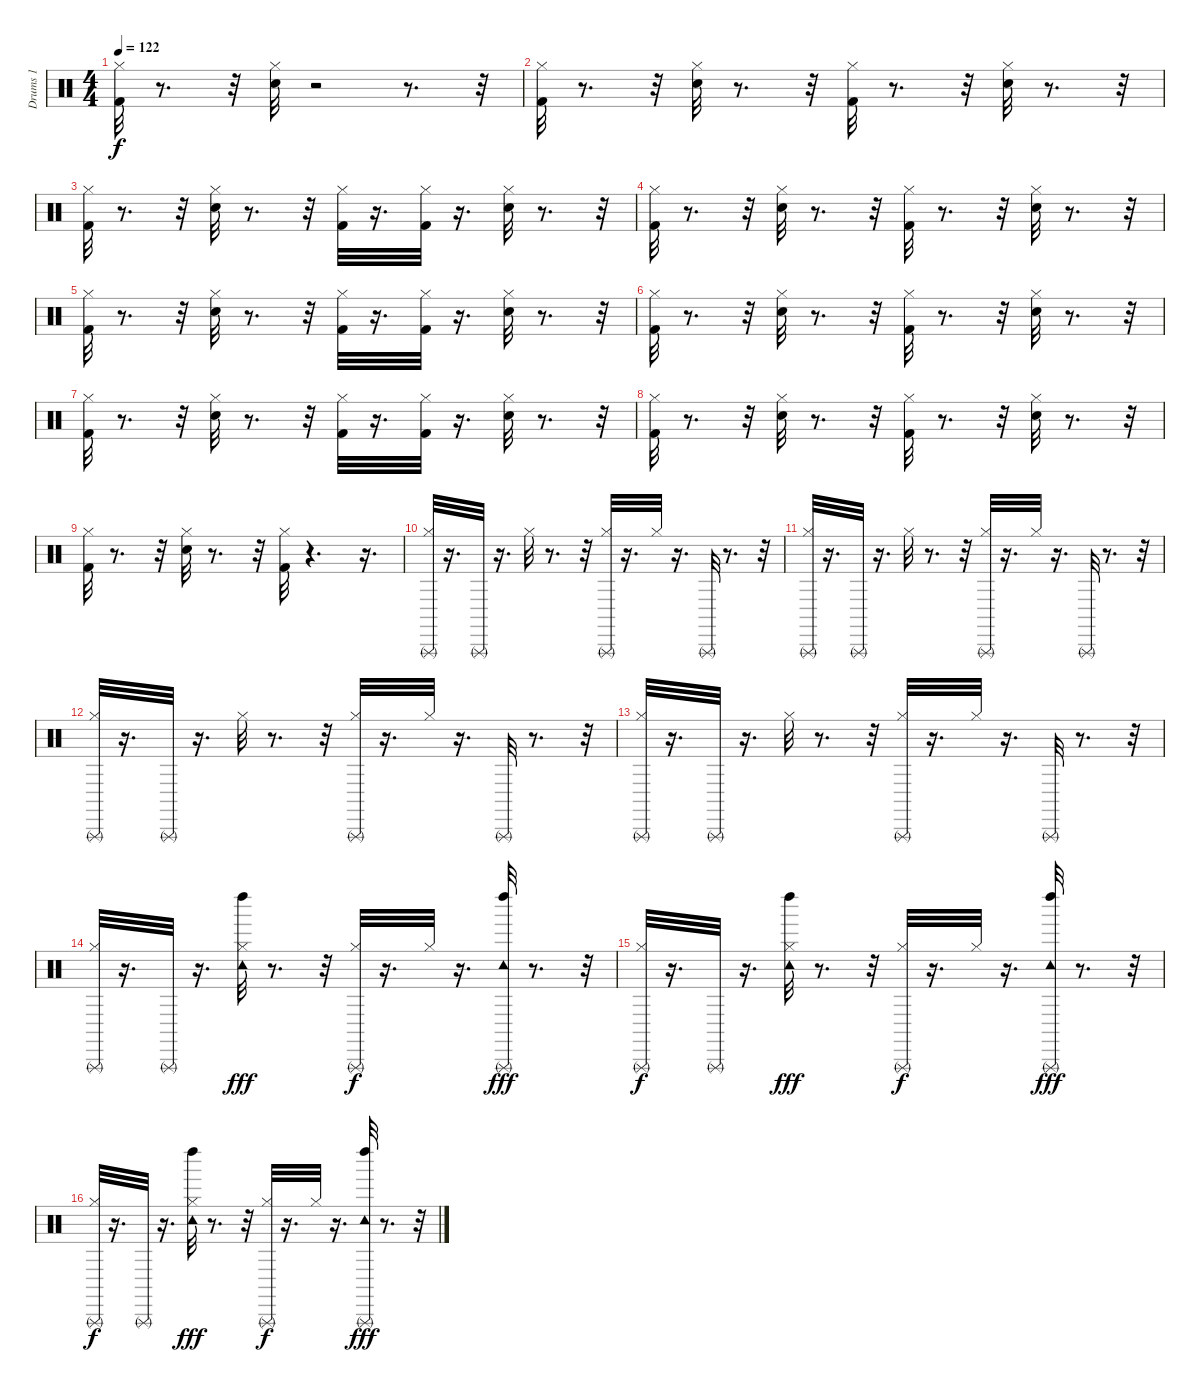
\track ("Drums 1" "Drums 1") {instrument percussion}
\staff {score}
\articulation defaults
\ts (4 4)
\tempo 122
\clef neutral
\ks c
("Hi-Hat (closed)" "Kick (hit) 2").32{dy f} r.8{d} r.32 ("Hi-Hat (closed)" "Snare (hit) 2").32 r.2 r.8{d} r.32 |
("Hi-Hat (closed)" "Kick (hit) 2").32 r.8{d} r.32 ("Hi-Hat (closed)" "Snare (hit) 2").32 r.8{d} r.32 ("Hi-Hat (closed)" "Kick (hit) 2").32 r.8{d} r.32 ("Hi-Hat (closed)" "Snare (hit) 2").32 r.8{d} r.32 |
("Hi-Hat (closed)" "Kick (hit) 2").32 r.8{d} r.32 ("Hi-Hat (closed)" "Snare (hit) 2").32 r.8{d} r.32 ("Hi-Hat (closed)" "Kick (hit) 2").32 r.16{d} ("Hi-Hat (closed)" "Kick (hit) 2").32 r.16{d} ("Hi-Hat (closed)" "Snare (hit) 2").32 r.8{d} r.32 |
("Hi-Hat (closed)" "Kick (hit) 2").32 r.8{d} r.32 ("Hi-Hat (closed)" "Snare (hit) 2").32 r.8{d} r.32 ("Hi-Hat (closed)" "Kick (hit) 2").32 r.8{d} r.32 ("Hi-Hat (closed)" "Snare (hit) 2").32 r.8{d} r.32 |
("Hi-Hat (closed)" "Kick (hit) 2").32 r.8{d} r.32 ("Hi-Hat (closed)" "Snare (hit) 2").32 r.8{d} r.32 ("Hi-Hat (closed)" "Kick (hit) 2").32 r.16{d} ("Hi-Hat (closed)" "Kick (hit) 2").32 r.16{d} ("Hi-Hat (closed)" "Snare (hit) 2").32 r.8{d} r.32 |
("Hi-Hat (closed)" "Kick (hit) 2").32 r.8{d} r.32 ("Hi-Hat (closed)" "Snare (hit) 2").32 r.8{d} r.32 ("Hi-Hat (closed)" "Kick (hit) 2").32 r.8{d} r.32 ("Hi-Hat (closed)" "Snare (hit) 2").32 r.8{d} r.32 |
("Hi-Hat (closed)" "Kick (hit) 2").32 r.8{d} r.32 ("Hi-Hat (closed)" "Snare (hit) 2").32 r.8{d} r.32 ("Hi-Hat (closed)" "Kick (hit) 2").32 r.16{d} ("Hi-Hat (closed)" "Kick (hit) 2").32 r.16{d} ("Hi-Hat (closed)" "Snare (hit) 2").32 r.8{d} r.32 |
("Hi-Hat (closed)" "Kick (hit) 2").32 r.8{d} r.32 ("Hi-Hat (closed)" "Snare (hit) 2").32 r.8{d} r.32 ("Hi-Hat (closed)" "Kick (hit) 2").32 r.8{d} r.32 ("Hi-Hat (closed)" "Snare (hit) 2").32 r.8{d} r.32 |
("Hi-Hat (closed)" "Kick (hit) 2").32 r.8{d} r.32 ("Hi-Hat (closed)" "Snare (hit) 2").32 r.8{d} r.32 ("Hi-Hat (closed)" "Kick (hit) 2").32 r.4{d} r.16{d} |
("Triangle (rnute)" "Hi-Hat (closed)").32 r.16{d} "Triangle (rnute)".32 r.16{d} "Hi-Hat (closed)".32 r.8{d} r.32 ("Triangle (rnute)" "Hi-Hat (closed)").32 r.16{d} "Hi-Hat (closed)".32 r.16{d} "Triangle (rnute)".32 r.8{d} r.32 |
("Triangle (rnute)" "Hi-Hat (closed)").32 r.16{d} "Triangle (rnute)".32 r.16{d} "Hi-Hat (closed)".32 r.8{d} r.32 ("Triangle (rnute)" "Hi-Hat (closed)").32 r.16{d} "Hi-Hat (closed)".32 r.16{d} "Triangle (rnute)".32 r.8{d} r.32 |
("Hi-Hat (closed)" "Triangle (rnute)").32 r.16{d} "Triangle (rnute)".32 r.16{d} "Hi-Hat (closed)".32 r.8{d} r.32 ("Triangle (rnute)" "Hi-Hat (closed)").32 r.16{d} "Hi-Hat (closed)".32 r.16{d} "Triangle (rnute)".32 r.8{d} r.32 |
("Hi-Hat (closed)" "Triangle (rnute)").32 r.16{d} "Triangle (rnute)".32 r.16{d} "Hi-Hat (closed)".32 r.8{d} r.32 ("Triangle (rnute)" "Hi-Hat (closed)").32 r.16{d} "Hi-Hat (closed)".32 r.16{d} "Triangle (rnute)".32 r.8{d} r.32 |
("Hi-Hat (closed)" "Triangle (rnute)").32 r.16{d} "Triangle (rnute)".32 r.16{d} ("Left Maraca (hit)" "Tambourine (hit)" "Hi-Hat (closed)").32{dy fff} r.8{d} r.32 ("Triangle (rnute)" "Hi-Hat (closed)").32{dy f} r.16{d} "Hi-Hat (closed)".32 r.16{d} ("Left Maraca (hit)" "Tambourine (hit)" "Triangle (rnute)").32{dy fff} r.8{d} r.32 |
("Triangle (rnute)" "Hi-Hat (closed)").32{dy f} r.16{d} "Triangle (rnute)".32 r.16{d} ("Left Maraca (hit)" "Tambourine (hit)" "Hi-Hat (closed)").32{dy fff} r.8{d} r.32 ("Triangle (rnute)" "Hi-Hat (closed)").32{dy f} r.16{d} "Hi-Hat (closed)".32 r.16{d} ("Left Maraca (hit)" "Tambourine (hit)" "Triangle (rnute)").32{dy fff} r.8{d} r.32 |
("Hi-Hat (closed)" "Triangle (rnute)").32{dy f} r.16{d} "Triangle (rnute)".32 r.16{d} ("Left Maraca (hit)" "Tambourine (hit)" "Hi-Hat (closed)").32{dy fff} r.8{d} r.32 ("Hi-Hat (closed)" "Triangle (rnute)").32{dy f} r.16{d} "Hi-Hat (closed)".32 r.16{d} ("Left Maraca (hit)" "Tambourine (hit)" "Triangle (rnute)").32{dy fff} r.8{d} r.32
